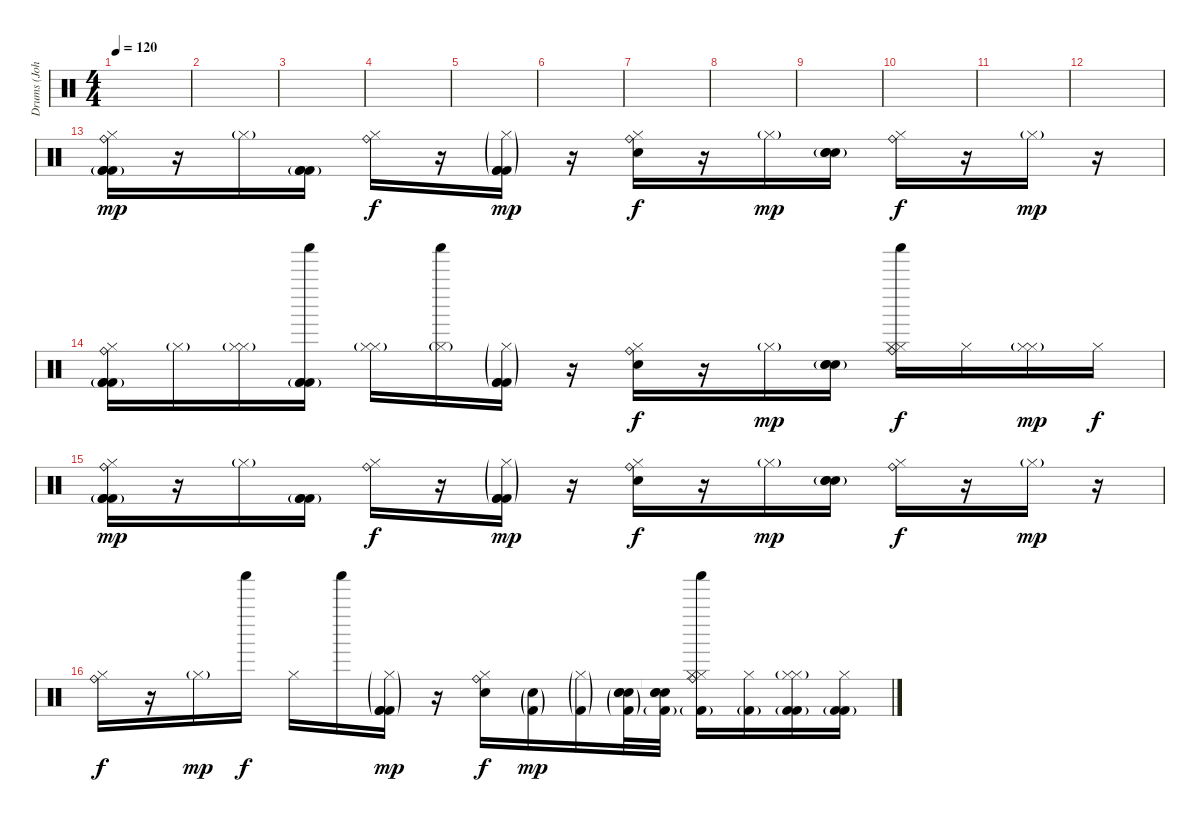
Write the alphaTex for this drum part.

\track ("Drums (Johno)" "Drums (Joh") {instrument percussion}
\staff {score}
\articulation defaults
\ts (4 4)
\tempo 120
\clef neutral
\ks c
|
|
|
|
|
|
|
|
|
|
|
|
("Ride (bell)" "Hi-Hat (closed)" "Kick (hit) 2"{g} "Kick (hit) 2"{g} "Kick (hit) 2").16{dy mp} r.16 "Hi-Hat (closed)"{g}.16 ("Kick (hit) 2"{g} "Kick (hit) 2"{g} "Kick (hit) 2"{g}).16 ("Ride (bell)" "Hi-Hat (closed)").16{dy f} r.16 ("Hi-Hat (closed)"{g} "Kick (hit) 2"{g} "Kick (hit) 2"{g} "Kick (hit) 2").16{dy mp} r.16 ("Ride (bell)" "Hi-Hat (closed)" "Electric Snare (hit)").16{dy f} r.16 "Hi-Hat (closed)"{g}.16{dy mp} ("Electric Snare (hit)"{g} "Electric Snare (hit)"{g} "Electric Snare (hit)"{g}).16 ("Ride (bell)" "Hi-Hat (closed)").16{dy f} r.16 "Hi-Hat (closed)"{g}.16{dy mp} r.16 |
("Ride (bell)" "Hi-Hat (closed)" "Kick (hit) 2"{g} "Kick (hit) 2"{g} "Kick (hit) 2").16 "Hi-Hat (closed)"{g}.16 ("Hi-Hat (closed)"{g} "Hi-Hat (closed)"{g}).16 ("Shaker (hit)" "Kick (hit) 2"{g} "Kick (hit) 2"{g} "Kick (hit) 2").16 ("Hi-Hat (closed)" "Hi-Hat (closed)"{g}).16 ("Shaker (hit)" "Hi-Hat (closed)"{g}).16 ("Hi-Hat (closed)"{g} "Kick (hit) 2"{g} "Kick (hit) 2"{g} "Kick (hit) 2").16 r.16 ("Ride (bell)" "Hi-Hat (closed)" "Electric Snare (hit)").16{dy f} r.16 "Hi-Hat (closed)"{g}.16{dy mp} ("Electric Snare (hit)"{g} "Electric Snare (hit)"{g} "Electric Snare (hit)"{g}).16 ("Shaker (hit)" "Hi-Hat (closed)" "Ride (bell)" "Hi-Hat (closed)").16{dy f} "Hi-Hat (closed)".16 ("Hi-Hat (closed)"{g} "Hi-Hat (closed)").16{dy mp} "Hi-Hat (closed)".16{dy f} |
("Ride (bell)" "Hi-Hat (closed)" "Kick (hit) 2"{g} "Kick (hit) 2"{g} "Kick (hit) 2").16{dy mp} r.16 "Hi-Hat (closed)"{g}.16 ("Kick (hit) 2"{g} "Kick (hit) 2"{g} "Kick (hit) 2"{g}).16 ("Ride (bell)" "Hi-Hat (closed)").16{dy f} r.16 ("Hi-Hat (closed)"{g} "Kick (hit) 2"{g} "Kick (hit) 2"{g} "Kick (hit) 2").16{dy mp} r.16 ("Ride (bell)" "Hi-Hat (closed)" "Electric Snare (hit)").16{dy f} r.16 "Hi-Hat (closed)"{g}.16{dy mp} ("Electric Snare (hit)"{g} "Electric Snare (hit)"{g} "Electric Snare (hit)"{g}).16 ("Ride (bell)" "Hi-Hat (closed)").16{dy f} r.16 "Hi-Hat (closed)"{g}.16{dy mp} r.16 |
("Ride (bell)" "Hi-Hat (closed)").16{dy f} r.16 "Hi-Hat (closed)"{g}.16{dy mp} "Shaker (hit)".16{dy f} "Hi-Hat (closed)".16 "Shaker (hit)".16 ("Hi-Hat (closed)"{g} "Kick (hit) 2"{g} "Kick (hit) 2"{g} "Kick (hit) 2").16{dy mp} r.16 ("Ride (bell)" "Hi-Hat (closed)" "Electric Snare (hit)").16{dy f} ("Kick (hit) 2"{g} "Electric Snare (hit)"{g}).16{dy mp} ("Hi-Hat (closed)"{g} "Kick (hit) 2"{g}).16 ("Kick (hit) 2"{g} "Electric Snare (hit)"{g} "Electric Snare (hit)"{g} "Electric Snare (hit)"{g}).32 ("Kick (hit) 2"{g} "Snare (hit)"{t} "Snare (hit)"{t} "Snare (hit)"{t}).32 ("Shaker (hit)" "Hi-Hat (closed)" "Ride (bell)" "Kick (hit) 2"{g} "Hi-Hat (closed)").16 ("Kick (hit) 2"{g} "Hi-Hat (closed)").16 ("Hi-Hat (closed)"{g} "Kick (hit) 2"{g} "Hi-Hat (closed)" "Kick (hit) 2").16 ("Kick (hit) 2"{g} "Hi-Hat (closed)" "Kick (hit) 2").16
